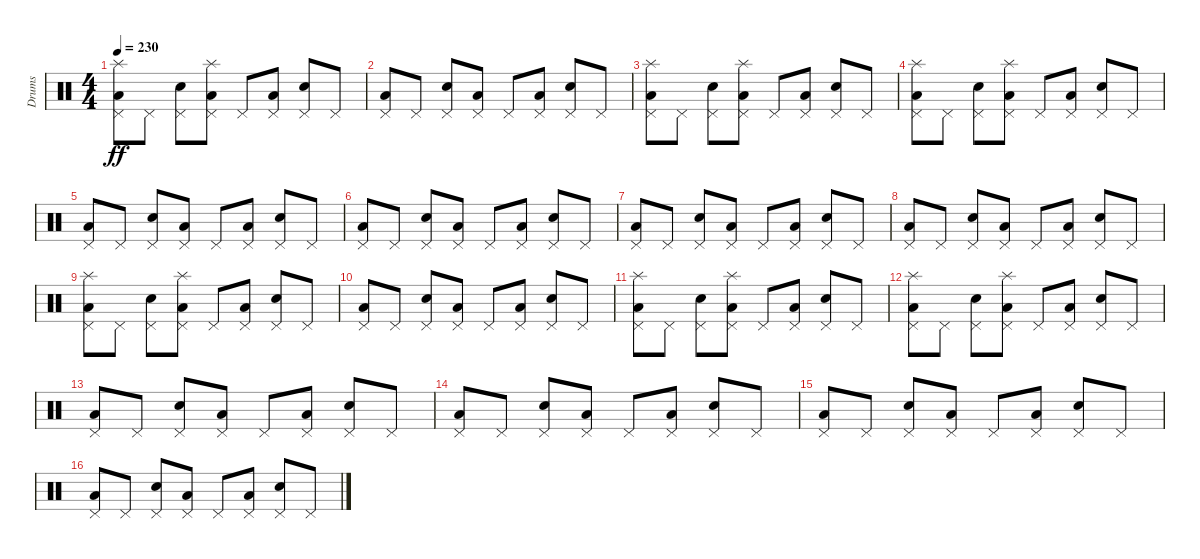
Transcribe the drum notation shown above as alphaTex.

\track ("Drums" "Drums") {instrument percussion}
\staff {score}
\articulation defaults
\ts (4 4)
\tempo 230
\clef neutral
\ks c
("Low Floor Tom (hit)" "Pedal Hi-Hat (hit)" "Splash (hit)").8{dy ff} "Pedal Hi-Hat (hit)".8 ("Electric Snare (hit)" "Pedal Hi-Hat (hit)").8 ("Low Floor Tom (hit)" "Pedal Hi-Hat (hit)" "Splash (hit)").8 "Pedal Hi-Hat (hit)".8 ("Low Floor Tom (hit)" "Pedal Hi-Hat (hit)").8 ("Electric Snare (hit)" "Pedal Hi-Hat (hit)").8 "Pedal Hi-Hat (hit)".8 |
("Low Floor Tom (hit)" "Pedal Hi-Hat (hit)").8 "Pedal Hi-Hat (hit)".8 ("Electric Snare (hit)" "Pedal Hi-Hat (hit)").8 ("Low Floor Tom (hit)" "Pedal Hi-Hat (hit)").8 "Pedal Hi-Hat (hit)".8 ("Low Floor Tom (hit)" "Pedal Hi-Hat (hit)").8 ("Electric Snare (hit)" "Pedal Hi-Hat (hit)").8 "Pedal Hi-Hat (hit)".8 |
("Low Floor Tom (hit)" "Pedal Hi-Hat (hit)" "Splash (hit)").8 "Pedal Hi-Hat (hit)".8 ("Electric Snare (hit)" "Pedal Hi-Hat (hit)").8 ("Low Floor Tom (hit)" "Pedal Hi-Hat (hit)" "Splash (hit)").8 "Pedal Hi-Hat (hit)".8 ("Low Floor Tom (hit)" "Pedal Hi-Hat (hit)").8 ("Electric Snare (hit)" "Pedal Hi-Hat (hit)").8 "Pedal Hi-Hat (hit)".8 |
("Low Floor Tom (hit)" "Pedal Hi-Hat (hit)" "Splash (hit)").8 "Pedal Hi-Hat (hit)".8 ("Electric Snare (hit)" "Pedal Hi-Hat (hit)").8 ("Low Floor Tom (hit)" "Pedal Hi-Hat (hit)" "Splash (hit)").8 "Pedal Hi-Hat (hit)".8 ("Low Floor Tom (hit)" "Pedal Hi-Hat (hit)").8 ("Electric Snare (hit)" "Pedal Hi-Hat (hit)").8 "Pedal Hi-Hat (hit)".8 |
("Low Floor Tom (hit)" "Pedal Hi-Hat (hit)").8 "Pedal Hi-Hat (hit)".8 ("Electric Snare (hit)" "Pedal Hi-Hat (hit)").8 ("Low Floor Tom (hit)" "Pedal Hi-Hat (hit)").8 "Pedal Hi-Hat (hit)".8 ("Low Floor Tom (hit)" "Pedal Hi-Hat (hit)").8 ("Electric Snare (hit)" "Pedal Hi-Hat (hit)").8 "Pedal Hi-Hat (hit)".8 |
("Low Floor Tom (hit)" "Pedal Hi-Hat (hit)").8 "Pedal Hi-Hat (hit)".8 ("Electric Snare (hit)" "Pedal Hi-Hat (hit)").8 ("Low Floor Tom (hit)" "Pedal Hi-Hat (hit)").8 "Pedal Hi-Hat (hit)".8 ("Low Floor Tom (hit)" "Pedal Hi-Hat (hit)").8 ("Electric Snare (hit)" "Pedal Hi-Hat (hit)").8 "Pedal Hi-Hat (hit)".8 |
("Low Floor Tom (hit)" "Pedal Hi-Hat (hit)").8 "Pedal Hi-Hat (hit)".8 ("Electric Snare (hit)" "Pedal Hi-Hat (hit)").8 ("Low Floor Tom (hit)" "Pedal Hi-Hat (hit)").8 "Pedal Hi-Hat (hit)".8 ("Low Floor Tom (hit)" "Pedal Hi-Hat (hit)").8 ("Electric Snare (hit)" "Pedal Hi-Hat (hit)").8 "Pedal Hi-Hat (hit)".8 |
("Low Floor Tom (hit)" "Pedal Hi-Hat (hit)").8 "Pedal Hi-Hat (hit)".8 ("Electric Snare (hit)" "Pedal Hi-Hat (hit)").8 ("Low Floor Tom (hit)" "Pedal Hi-Hat (hit)").8 "Pedal Hi-Hat (hit)".8 ("Low Floor Tom (hit)" "Pedal Hi-Hat (hit)").8 ("Electric Snare (hit)" "Pedal Hi-Hat (hit)").8 "Pedal Hi-Hat (hit)".8 |
("Low Floor Tom (hit)" "Pedal Hi-Hat (hit)" "Splash (hit)").8 "Pedal Hi-Hat (hit)".8 ("Electric Snare (hit)" "Pedal Hi-Hat (hit)").8 ("Low Floor Tom (hit)" "Pedal Hi-Hat (hit)" "Splash (hit)").8 "Pedal Hi-Hat (hit)".8 ("Low Floor Tom (hit)" "Pedal Hi-Hat (hit)").8 ("Electric Snare (hit)" "Pedal Hi-Hat (hit)").8 "Pedal Hi-Hat (hit)".8 |
("Low Floor Tom (hit)" "Pedal Hi-Hat (hit)").8 "Pedal Hi-Hat (hit)".8 ("Electric Snare (hit)" "Pedal Hi-Hat (hit)").8 ("Low Floor Tom (hit)" "Pedal Hi-Hat (hit)").8 "Pedal Hi-Hat (hit)".8 ("Low Floor Tom (hit)" "Pedal Hi-Hat (hit)").8 ("Electric Snare (hit)" "Pedal Hi-Hat (hit)").8 "Pedal Hi-Hat (hit)".8 |
("Low Floor Tom (hit)" "Pedal Hi-Hat (hit)" "Splash (hit)").8 "Pedal Hi-Hat (hit)".8 ("Electric Snare (hit)" "Pedal Hi-Hat (hit)").8 ("Low Floor Tom (hit)" "Pedal Hi-Hat (hit)" "Splash (hit)").8 "Pedal Hi-Hat (hit)".8 ("Low Floor Tom (hit)" "Pedal Hi-Hat (hit)").8 ("Electric Snare (hit)" "Pedal Hi-Hat (hit)").8 "Pedal Hi-Hat (hit)".8 |
("Low Floor Tom (hit)" "Pedal Hi-Hat (hit)" "Splash (hit)").8 "Pedal Hi-Hat (hit)".8 ("Electric Snare (hit)" "Pedal Hi-Hat (hit)").8 ("Low Floor Tom (hit)" "Pedal Hi-Hat (hit)" "Splash (hit)").8 "Pedal Hi-Hat (hit)".8 ("Low Floor Tom (hit)" "Pedal Hi-Hat (hit)").8 ("Electric Snare (hit)" "Pedal Hi-Hat (hit)").8 "Pedal Hi-Hat (hit)".8 |
("Low Floor Tom (hit)" "Pedal Hi-Hat (hit)").8 "Pedal Hi-Hat (hit)".8 ("Electric Snare (hit)" "Pedal Hi-Hat (hit)").8 ("Low Floor Tom (hit)" "Pedal Hi-Hat (hit)").8 "Pedal Hi-Hat (hit)".8 ("Low Floor Tom (hit)" "Pedal Hi-Hat (hit)").8 ("Electric Snare (hit)" "Pedal Hi-Hat (hit)").8 "Pedal Hi-Hat (hit)".8 |
("Low Floor Tom (hit)" "Pedal Hi-Hat (hit)").8 "Pedal Hi-Hat (hit)".8 ("Electric Snare (hit)" "Pedal Hi-Hat (hit)").8 ("Low Floor Tom (hit)" "Pedal Hi-Hat (hit)").8 "Pedal Hi-Hat (hit)".8 ("Low Floor Tom (hit)" "Pedal Hi-Hat (hit)").8 ("Electric Snare (hit)" "Pedal Hi-Hat (hit)").8 "Pedal Hi-Hat (hit)".8 |
("Low Floor Tom (hit)" "Pedal Hi-Hat (hit)").8 "Pedal Hi-Hat (hit)".8 ("Electric Snare (hit)" "Pedal Hi-Hat (hit)").8 ("Low Floor Tom (hit)" "Pedal Hi-Hat (hit)").8 "Pedal Hi-Hat (hit)".8 ("Low Floor Tom (hit)" "Pedal Hi-Hat (hit)").8 ("Electric Snare (hit)" "Pedal Hi-Hat (hit)").8 "Pedal Hi-Hat (hit)".8 |
("Low Floor Tom (hit)" "Pedal Hi-Hat (hit)").8 "Pedal Hi-Hat (hit)".8 ("Electric Snare (hit)" "Pedal Hi-Hat (hit)").8 ("Low Floor Tom (hit)" "Pedal Hi-Hat (hit)").8 "Pedal Hi-Hat (hit)".8 ("Low Floor Tom (hit)" "Pedal Hi-Hat (hit)").8 ("Electric Snare (hit)" "Pedal Hi-Hat (hit)").8 "Pedal Hi-Hat (hit)".8
